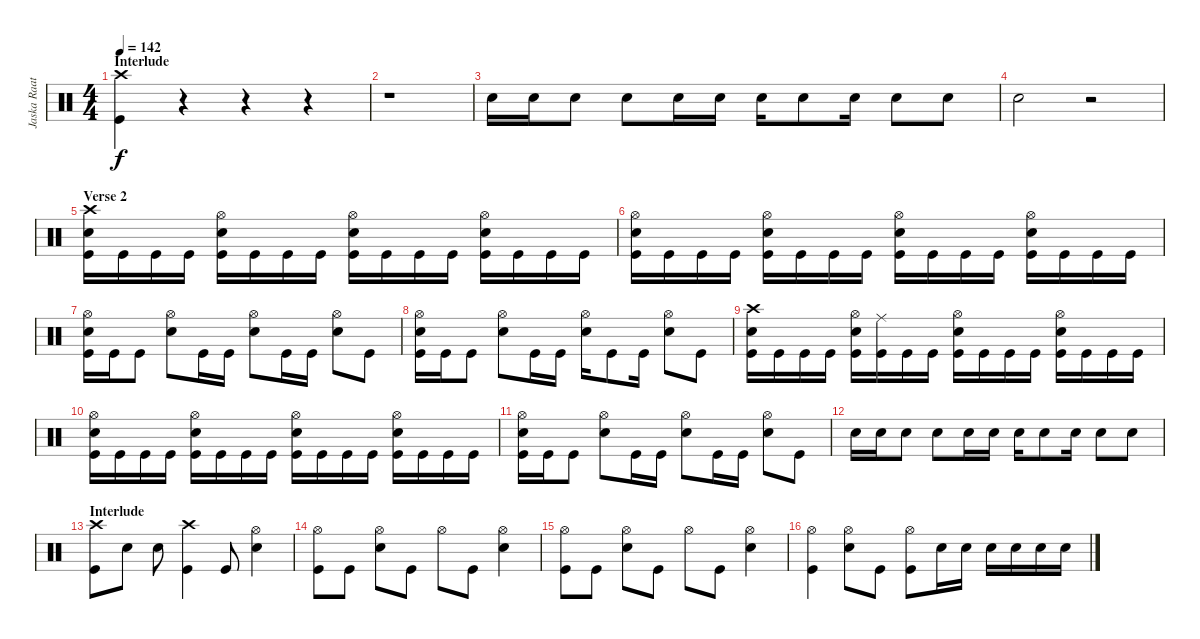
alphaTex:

\track ("Jaska Raatikainen" "Jaska Raat") {instrument percussion}
\staff {score}
\articulation defaults
\ts (4 4)
\section ("" "Interlude")
\tempo 142
\clef neutral
\ks c
("Crash high (hit)" "Kick (hit)").4{dy f} r.4 r.4 r.4 |
r.1 |
"Snare (hit) 2".16 "Snare (hit) 2".16 "Snare (hit) 2".8 "Snare (hit) 2".8 "Snare (hit) 2".16 "Snare (hit) 2".16 "Snare (hit) 2".16 "Snare (hit) 2".8 "Snare (hit) 2".16 "Snare (hit) 2".8 "Snare (hit) 2".8 |
"Snare (hit) 2".2 r.2 |
\section ("" "Verse 2")
("Crash high (hit)" "Snare (hit) 2" "Kick (hit)").16 "Kick (hit)".16 "Kick (hit)".16 "Kick (hit)".16 ("Hi-Hat (open)" "Snare (hit) 2" "Kick (hit)").16 "Kick (hit)".16 "Kick (hit)".16 "Kick (hit)".16 ("Hi-Hat (open)" "Snare (hit) 2" "Kick (hit)").16 "Kick (hit)".16 "Kick (hit)".16 "Kick (hit)".16 ("Hi-Hat (open)" "Snare (hit) 2" "Kick (hit)").16 "Kick (hit)".16 "Kick (hit)".16 "Kick (hit)".16 |
("Hi-Hat (open)" "Snare (hit) 2" "Kick (hit)").16 "Kick (hit)".16 "Kick (hit)".16 "Kick (hit)".16 ("Hi-Hat (open)" "Snare (hit) 2" "Kick (hit)").16 "Kick (hit)".16 "Kick (hit)".16 "Kick (hit)".16 ("Hi-Hat (open)" "Snare (hit) 2" "Kick (hit)").16 "Kick (hit)".16 "Kick (hit)".16 "Kick (hit)".16 ("Hi-Hat (open)" "Snare (hit) 2" "Kick (hit)").16 "Kick (hit)".16 "Kick (hit)".16 "Kick (hit)".16 |
("Hi-Hat (open)" "Snare (hit) 2" "Kick (hit)").16 "Kick (hit)".16 "Kick (hit)".8 ("Hi-Hat (open)" "Snare (hit) 2").8 "Kick (hit)".16 "Kick (hit)".16 ("Hi-Hat (open)" "Snare (hit) 2").8 "Kick (hit)".16 "Kick (hit)".16 ("Hi-Hat (open)" "Snare (hit) 2").8 "Kick (hit)".8 |
("Hi-Hat (open)" "Snare (hit) 2" "Kick (hit)").16 "Kick (hit)".16 "Kick (hit)".8 ("Hi-Hat (open)" "Snare (hit) 2").8 "Kick (hit)".16 "Kick (hit)".16 ("Hi-Hat (open)" "Snare (hit) 2").16 "Kick (hit)".8 "Kick (hit)".16 ("Hi-Hat (open)" "Snare (hit) 2").8 "Kick (hit)".8 |
("Crash high (hit)" "Snare (hit) 2" "Kick (hit)").16 "Kick (hit)".16 "Kick (hit)".16 "Kick (hit)".16 ("Hi-Hat (open)" "Snare (hit) 2" "Kick (hit)").16 ("Ride (middle)" "Kick (hit)").16 "Kick (hit)".16 "Kick (hit)".16 ("Hi-Hat (open)" "Snare (hit) 2" "Kick (hit)").16 "Kick (hit)".16 "Kick (hit)".16 "Kick (hit)".16 ("Hi-Hat (open)" "Snare (hit) 2" "Kick (hit)").16 "Kick (hit)".16 "Kick (hit)".16 "Kick (hit)".16 |
("Hi-Hat (open)" "Snare (hit) 2" "Kick (hit)").16 "Kick (hit)".16 "Kick (hit)".16 "Kick (hit)".16 ("Hi-Hat (open)" "Snare (hit) 2" "Kick (hit)").16 "Kick (hit)".16 "Kick (hit)".16 "Kick (hit)".16 ("Hi-Hat (open)" "Snare (hit) 2" "Kick (hit)").16 "Kick (hit)".16 "Kick (hit)".16 "Kick (hit)".16 ("Hi-Hat (open)" "Snare (hit) 2" "Kick (hit)").16 "Kick (hit)".16 "Kick (hit)".16 "Kick (hit)".16 |
("Hi-Hat (open)" "Snare (hit) 2" "Kick (hit)").16 "Kick (hit)".16 "Kick (hit)".8 ("Hi-Hat (open)" "Snare (hit) 2").8 "Kick (hit)".16 "Kick (hit)".16 ("Hi-Hat (open)" "Snare (hit) 2").8 "Kick (hit)".16 "Kick (hit)".16 ("Hi-Hat (open)" "Snare (hit) 2").8 "Kick (hit)".8 |
"Snare (hit) 2".16 "Snare (hit) 2".16 "Snare (hit) 2".8 "Snare (hit) 2".8 "Snare (hit) 2".16 "Snare (hit) 2".16 "Snare (hit) 2".16 "Snare (hit) 2".8 "Snare (hit) 2".16 "Snare (hit) 2".8 "Snare (hit) 2".8 |
\section ("" "Interlude")
("Crash high (hit)" "Kick (hit)").8 "Snare (hit) 2".8 "Snare (hit) 2".8 ("Crash high (hit)" "Kick (hit)").4 "Kick (hit)".8 ("Hi-Hat (open)" "Snare (hit) 2").4 |
("Hi-Hat (open)" "Kick (hit)").8 "Kick (hit)".8 ("Hi-Hat (open)" "Snare (hit) 2").8 "Kick (hit)".8 "Hi-Hat (open)".8 "Kick (hit)".8 ("Hi-Hat (open)" "Snare (hit) 2").4 |
("Hi-Hat (open)" "Kick (hit)").8 "Kick (hit)".8 ("Hi-Hat (open)" "Snare (hit) 2").8 "Kick (hit)".8 "Hi-Hat (open)".8 "Kick (hit)".8 ("Hi-Hat (open)" "Snare (hit) 2").4 |
("Hi-Hat (open)" "Kick (hit)").4 ("Hi-Hat (open)" "Snare (hit) 2").8 "Kick (hit)".8 ("Hi-Hat (open)" "Kick (hit)").8 "Snare (hit) 2".16 "Snare (hit) 2".16 "Snare (hit) 2".16 "Snare (hit) 2".16 "Snare (hit) 2".16 "Snare (hit) 2".16
